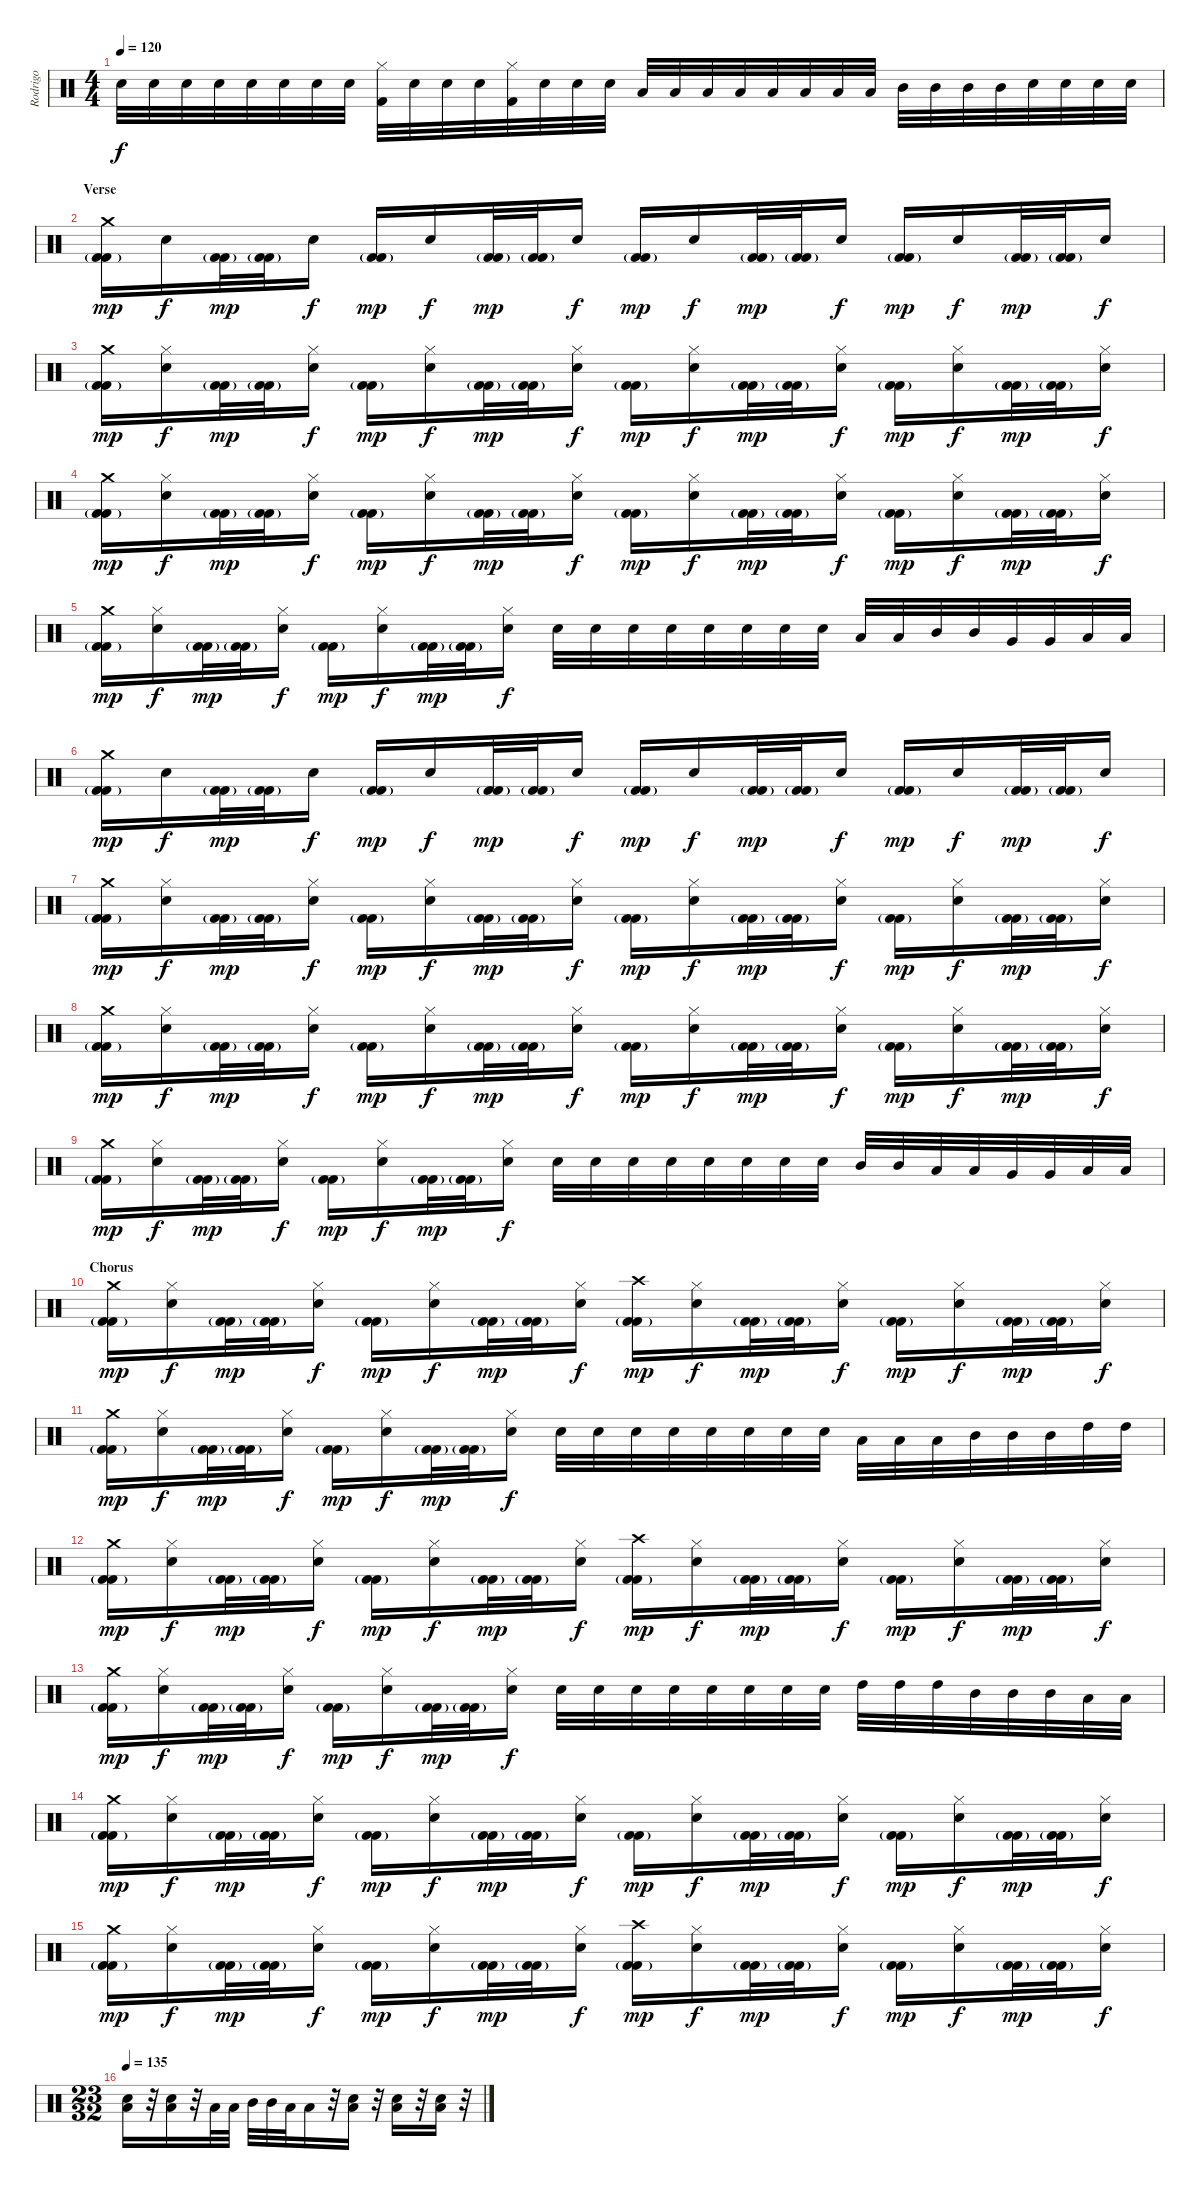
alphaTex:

\track ("Rodrigo" "Rodrigo") {instrument percussion}
\staff {score}
\articulation defaults
\ts (4 4)
\tempo 120
\clef neutral
\ks c "Snare (hit) 2".32{dy f} "Snare (hit) 2".32 "Snare (hit) 2".32 "Snare (hit) 2".32 "Snare (hit) 2".32 "Snare (hit) 2".32 "Snare (hit) 2".32 "Snare (hit) 2".32
("Kick (hit) 2" "Hi-Hat (closed)").32 "Snare (hit) 2".32 "Snare (hit) 2".32 "Snare (hit) 2".32 ("Kick (hit) 2" "Hi-Hat (closed)").32 "Snare (hit) 2".32 "Snare (hit) 2".32 "Snare (hit) 2".32 "Low Floor Tom (hit)".32 "Low Floor Tom (hit)".32 "Low Floor Tom (hit)".32 "Low Floor Tom (hit)".32 "Low Tom (hit)".32 "Low Tom (hit)".32 "Low Tom (hit)".32 "Low Tom (hit)".32 "Mid Tom (hit)".32 "Mid Tom (hit)".32 "Mid Tom (hit)".32 "Mid Tom (hit)".32 "Snare (hit) 2".32 "Snare (hit) 2".32 "Snare (hit) 2".32 "Snare (hit) 2".32 |
\section ("" "Verse")
("Crash medium (hit)" "Kick (hit) 2"{g} "Kick (hit) 2").16{dy mp} "Snare (hit) 2".16{dy f} ("Kick (hit) 2"{g} "Kick (hit) 2").32{dy mp} ("Kick (hit) 2"{g} "Kick (hit) 2").32 "Snare (hit) 2".16{dy f} ("Kick (hit) 2"{g} "Kick (hit) 2").16{dy mp} "Snare (hit) 2".16{dy f} ("Kick (hit) 2"{g} "Kick (hit) 2").32{dy mp} ("Kick (hit) 2"{g} "Kick (hit) 2").32 "Snare (hit) 2".16{dy f} ("Kick (hit) 2"{g} "Kick (hit) 2").16{dy mp} "Snare (hit) 2".16{dy f} ("Kick (hit) 2"{g} "Kick (hit) 2").32{dy mp} ("Kick (hit) 2"{g} "Kick (hit) 2").32 "Snare (hit) 2".16{dy f} ("Kick (hit) 2"{g} "Kick (hit) 2").16{dy mp} "Snare (hit) 2".16{dy f} ("Kick (hit) 2"{g} "Kick (hit) 2").32{dy mp} ("Kick (hit) 2"{g} "Kick (hit) 2").32 "Snare (hit) 2".16{dy f} |
("Crash medium (hit)" "Kick (hit) 2"{g} "Kick (hit) 2").16{dy mp} ("Hi-Hat (closed)" "Snare (hit) 2").16{dy f} ("Kick (hit) 2"{g} "Kick (hit) 2").32{dy mp} ("Kick (hit) 2"{g} "Kick (hit) 2").32 ("Hi-Hat (closed)" "Snare (hit) 2").16{dy f} ("Kick (hit) 2"{g} "Kick (hit) 2").16{dy mp} ("Hi-Hat (closed)" "Snare (hit) 2").16{dy f} ("Kick (hit) 2"{g} "Kick (hit) 2").32{dy mp} ("Kick (hit) 2"{g} "Kick (hit) 2").32 ("Hi-Hat (closed)" "Snare (hit) 2").16{dy f} ("Kick (hit) 2"{g} "Kick (hit) 2").16{dy mp} ("Hi-Hat (closed)" "Snare (hit) 2").16{dy f} ("Kick (hit) 2"{g} "Kick (hit) 2").32{dy mp} ("Kick (hit) 2"{g} "Kick (hit) 2").32 ("Hi-Hat (closed)" "Snare (hit) 2").16{dy f} ("Kick (hit) 2"{g} "Kick (hit) 2").16{dy mp} ("Hi-Hat (closed)" "Snare (hit) 2").16{dy f} ("Kick (hit) 2"{g} "Kick (hit) 2").32{dy mp} ("Kick (hit) 2"{g} "Kick (hit) 2").32 ("Hi-Hat (closed)" "Snare (hit) 2").16{dy f} |
("Crash medium (hit)" "Kick (hit) 2"{g} "Kick (hit) 2").16{dy mp} ("Hi-Hat (closed)" "Snare (hit) 2").16{dy f} ("Kick (hit) 2"{g} "Kick (hit) 2").32{dy mp} ("Kick (hit) 2"{g} "Kick (hit) 2").32 ("Hi-Hat (closed)" "Snare (hit) 2").16{dy f} ("Kick (hit) 2"{g} "Kick (hit) 2").16{dy mp} ("Hi-Hat (closed)" "Snare (hit) 2").16{dy f} ("Kick (hit) 2"{g} "Kick (hit) 2").32{dy mp} ("Kick (hit) 2"{g} "Kick (hit) 2").32 ("Hi-Hat (closed)" "Snare (hit) 2").16{dy f} ("Kick (hit) 2"{g} "Kick (hit) 2").16{dy mp} ("Hi-Hat (closed)" "Snare (hit) 2").16{dy f} ("Kick (hit) 2"{g} "Kick (hit) 2").32{dy mp} ("Kick (hit) 2"{g} "Kick (hit) 2").32 ("Hi-Hat (closed)" "Snare (hit) 2").16{dy f} ("Kick (hit) 2"{g} "Kick (hit) 2").16{dy mp} ("Hi-Hat (closed)" "Snare (hit) 2").16{dy f} ("Kick (hit) 2"{g} "Kick (hit) 2").32{dy mp} ("Kick (hit) 2"{g} "Kick (hit) 2").32 ("Hi-Hat (closed)" "Snare (hit) 2").16{dy f} |
("Crash medium (hit)" "Kick (hit) 2"{g} "Kick (hit) 2").16{dy mp} ("Hi-Hat (closed)" "Snare (hit) 2").16{dy f} ("Kick (hit) 2"{g} "Kick (hit) 2").32{dy mp} ("Kick (hit) 2"{g} "Kick (hit) 2").32 ("Hi-Hat (closed)" "Snare (hit) 2").16{dy f} ("Kick (hit) 2"{g} "Kick (hit) 2").16{dy mp} ("Hi-Hat (closed)" "Snare (hit) 2").16{dy f} ("Kick (hit) 2"{g} "Kick (hit) 2").32{dy mp} ("Kick (hit) 2"{g} "Kick (hit) 2").32 ("Hi-Hat (closed)" "Snare (hit) 2").16{dy f} "Snare (hit) 2".32 "Snare (hit) 2".32 "Snare (hit) 2".32 "Snare (hit) 2".32 "Snare (hit) 2".32 "Snare (hit) 2".32 "Snare (hit) 2".32 "Snare (hit) 2".32 "Low Tom (hit)".32 "Low Tom (hit)".32 "Mid Tom (hit)".32 "Mid Tom (hit)".32 "Very Low Tom (hit)".32 "Very Low Tom (hit)".32 "Low Floor Tom (hit)".32 "Low Floor Tom (hit)".32 |
("Crash medium (hit)" "Kick (hit) 2"{g} "Kick (hit) 2").16{dy mp} "Snare (hit) 2".16{dy f} ("Kick (hit) 2"{g} "Kick (hit) 2").32{dy mp} ("Kick (hit) 2"{g} "Kick (hit) 2").32 "Snare (hit) 2".16{dy f} ("Kick (hit) 2"{g} "Kick (hit) 2").16{dy mp} "Snare (hit) 2".16{dy f} ("Kick (hit) 2"{g} "Kick (hit) 2").32{dy mp} ("Kick (hit) 2"{g} "Kick (hit) 2").32 "Snare (hit) 2".16{dy f} ("Kick (hit) 2"{g} "Kick (hit) 2").16{dy mp} "Snare (hit) 2".16{dy f} ("Kick (hit) 2"{g} "Kick (hit) 2").32{dy mp} ("Kick (hit) 2"{g} "Kick (hit) 2").32 "Snare (hit) 2".16{dy f} ("Kick (hit) 2"{g} "Kick (hit) 2").16{dy mp} "Snare (hit) 2".16{dy f} ("Kick (hit) 2"{g} "Kick (hit) 2").32{dy mp} ("Kick (hit) 2"{g} "Kick (hit) 2").32 "Snare (hit) 2".16{dy f} |
("Crash medium (hit)" "Kick (hit) 2"{g} "Kick (hit) 2").16{dy mp} ("Hi-Hat (closed)" "Snare (hit) 2").16{dy f} ("Kick (hit) 2"{g} "Kick (hit) 2").32{dy mp} ("Kick (hit) 2"{g} "Kick (hit) 2").32 ("Hi-Hat (closed)" "Snare (hit) 2").16{dy f} ("Kick (hit) 2"{g} "Kick (hit) 2").16{dy mp} ("Hi-Hat (closed)" "Snare (hit) 2").16{dy f} ("Kick (hit) 2"{g} "Kick (hit) 2").32{dy mp} ("Kick (hit) 2"{g} "Kick (hit) 2").32 ("Hi-Hat (closed)" "Snare (hit) 2").16{dy f} ("Kick (hit) 2"{g} "Kick (hit) 2").16{dy mp} ("Hi-Hat (closed)" "Snare (hit) 2").16{dy f} ("Kick (hit) 2"{g} "Kick (hit) 2").32{dy mp} ("Kick (hit) 2"{g} "Kick (hit) 2").32 ("Hi-Hat (closed)" "Snare (hit) 2").16{dy f} ("Kick (hit) 2"{g} "Kick (hit) 2").16{dy mp} ("Hi-Hat (closed)" "Snare (hit) 2").16{dy f} ("Kick (hit) 2"{g} "Kick (hit) 2").32{dy mp} ("Kick (hit) 2"{g} "Kick (hit) 2").32 ("Hi-Hat (closed)" "Snare (hit) 2").16{dy f} |
("Crash medium (hit)" "Kick (hit) 2"{g} "Kick (hit) 2").16{dy mp} ("Hi-Hat (closed)" "Snare (hit) 2").16{dy f} ("Kick (hit) 2"{g} "Kick (hit) 2").32{dy mp} ("Kick (hit) 2"{g} "Kick (hit) 2").32 ("Hi-Hat (closed)" "Snare (hit) 2").16{dy f} ("Kick (hit) 2"{g} "Kick (hit) 2").16{dy mp} ("Hi-Hat (closed)" "Snare (hit) 2").16{dy f} ("Kick (hit) 2"{g} "Kick (hit) 2").32{dy mp} ("Kick (hit) 2"{g} "Kick (hit) 2").32 ("Hi-Hat (closed)" "Snare (hit) 2").16{dy f} ("Kick (hit) 2"{g} "Kick (hit) 2").16{dy mp} ("Hi-Hat (closed)" "Snare (hit) 2").16{dy f} ("Kick (hit) 2"{g} "Kick (hit) 2").32{dy mp} ("Kick (hit) 2"{g} "Kick (hit) 2").32 ("Hi-Hat (closed)" "Snare (hit) 2").16{dy f} ("Kick (hit) 2"{g} "Kick (hit) 2").16{dy mp} ("Hi-Hat (closed)" "Snare (hit) 2").16{dy f} ("Kick (hit) 2"{g} "Kick (hit) 2").32{dy mp} ("Kick (hit) 2"{g} "Kick (hit) 2").32 ("Hi-Hat (closed)" "Snare (hit) 2").16{dy f} |
("Crash medium (hit)" "Kick (hit) 2"{g} "Kick (hit) 2").16{dy mp} ("Hi-Hat (closed)" "Snare (hit) 2").16{dy f} ("Kick (hit) 2"{g} "Kick (hit) 2").32{dy mp} ("Kick (hit) 2"{g} "Kick (hit) 2").32 ("Hi-Hat (closed)" "Snare (hit) 2").16{dy f} ("Kick (hit) 2"{g} "Kick (hit) 2").16{dy mp} ("Hi-Hat (closed)" "Snare (hit) 2").16{dy f} ("Kick (hit) 2"{g} "Kick (hit) 2").32{dy mp} ("Kick (hit) 2"{g} "Kick (hit) 2").32 ("Hi-Hat (closed)" "Snare (hit) 2").16{dy f} "Snare (hit) 2".32 "Snare (hit) 2".32 "Snare (hit) 2".32 "Snare (hit) 2".32 "Snare (hit) 2".32 "Snare (hit) 2".32 "Snare (hit) 2".32 "Snare (hit) 2".32 "Mid Tom (hit)".32 "Mid Tom (hit)".32 "Low Tom (hit)".32 "Low Tom (hit)".32 "Very Low Tom (hit)".32 "Very Low Tom (hit)".32 "Low Floor Tom (hit)".32 "Low Floor Tom (hit)".32 |
\section ("" "Chorus")
("Crash medium (hit)" "Kick (hit) 2"{g} "Kick (hit) 2").16{dy mp} ("Hi-Hat (closed)" "Snare (hit) 2").16{dy f} ("Kick (hit) 2"{g} "Kick (hit) 2").32{dy mp} ("Kick (hit) 2"{g} "Kick (hit) 2").32 ("Hi-Hat (closed)" "Snare (hit) 2").16{dy f} ("Kick (hit) 2"{g} "Kick (hit) 2").16{dy mp} ("Hi-Hat (closed)" "Snare (hit) 2").16{dy f} ("Kick (hit) 2"{g} "Kick (hit) 2").32{dy mp} ("Kick (hit) 2"{g} "Kick (hit) 2").32 ("Hi-Hat (closed)" "Snare (hit) 2").16{dy f} ("Crash high (hit)" "Kick (hit) 2"{g} "Kick (hit) 2").16{dy mp} ("Hi-Hat (closed)" "Snare (hit) 2").16{dy f} ("Kick (hit) 2"{g} "Kick (hit) 2").32{dy mp} ("Kick (hit) 2"{g} "Kick (hit) 2").32 ("Hi-Hat (closed)" "Snare (hit) 2").16{dy f} ("Kick (hit) 2"{g} "Kick (hit) 2").16{dy mp} ("Hi-Hat (closed)" "Snare (hit) 2").16{dy f} ("Kick (hit) 2"{g} "Kick (hit) 2").32{dy mp} ("Kick (hit) 2"{g} "Kick (hit) 2").32 ("Hi-Hat (closed)" "Snare (hit) 2").16{dy f} |
("Crash medium (hit)" "Kick (hit) 2"{g} "Kick (hit) 2").16{dy mp} ("Hi-Hat (closed)" "Snare (hit) 2").16{dy f} ("Kick (hit) 2"{g} "Kick (hit) 2").32{dy mp} ("Kick (hit) 2"{g} "Kick (hit) 2").32 ("Hi-Hat (closed)" "Snare (hit) 2").16{dy f} ("Kick (hit) 2"{g} "Kick (hit) 2").16{dy mp} ("Hi-Hat (closed)" "Snare (hit) 2").16{dy f} ("Kick (hit) 2"{g} "Kick (hit) 2").32{dy mp} ("Kick (hit) 2"{g} "Kick (hit) 2").32 ("Hi-Hat (closed)" "Snare (hit) 2").16{dy f} "Snare (hit) 2".32 "Snare (hit) 2".32 "Snare (hit) 2".32 "Snare (hit) 2".32 "Snare (hit) 2".32 "Snare (hit) 2".32 "Snare (hit) 2".32 "Snare (hit) 2".32 "Low Tom (hit)".32 "Low Tom (hit)".32 "Low Tom (hit)".32 "Mid Tom (hit)".32 "Mid Tom (hit)".32 "Mid Tom (hit)".32 "High Tom (hit)".32 "High Tom (hit)".32 |
("Crash medium (hit)" "Kick (hit) 2"{g} "Kick (hit) 2").16{dy mp} ("Hi-Hat (closed)" "Snare (hit) 2").16{dy f} ("Kick (hit) 2"{g} "Kick (hit) 2").32{dy mp} ("Kick (hit) 2"{g} "Kick (hit) 2").32 ("Hi-Hat (closed)" "Snare (hit) 2").16{dy f} ("Kick (hit) 2"{g} "Kick (hit) 2").16{dy mp} ("Hi-Hat (closed)" "Snare (hit) 2").16{dy f} ("Kick (hit) 2"{g} "Kick (hit) 2").32{dy mp} ("Kick (hit) 2"{g} "Kick (hit) 2").32 ("Hi-Hat (closed)" "Snare (hit) 2").16{dy f} ("Crash high (hit)" "Kick (hit) 2"{g} "Kick (hit) 2").16{dy mp} ("Hi-Hat (closed)" "Snare (hit) 2").16{dy f} ("Kick (hit) 2"{g} "Kick (hit) 2").32{dy mp} ("Kick (hit) 2"{g} "Kick (hit) 2").32 ("Hi-Hat (closed)" "Snare (hit) 2").16{dy f} ("Kick (hit) 2"{g} "Kick (hit) 2").16{dy mp} ("Hi-Hat (closed)" "Snare (hit) 2").16{dy f} ("Kick (hit) 2"{g} "Kick (hit) 2").32{dy mp} ("Kick (hit) 2"{g} "Kick (hit) 2").32 ("Hi-Hat (closed)" "Snare (hit) 2").16{dy f} |
("Crash medium (hit)" "Kick (hit) 2"{g} "Kick (hit) 2").16{dy mp} ("Hi-Hat (closed)" "Snare (hit) 2").16{dy f} ("Kick (hit) 2"{g} "Kick (hit) 2").32{dy mp} ("Kick (hit) 2"{g} "Kick (hit) 2").32 ("Hi-Hat (closed)" "Snare (hit) 2").16{dy f} ("Kick (hit) 2"{g} "Kick (hit) 2").16{dy mp} ("Hi-Hat (closed)" "Snare (hit) 2").16{dy f} ("Kick (hit) 2"{g} "Kick (hit) 2").32{dy mp} ("Kick (hit) 2"{g} "Kick (hit) 2").32 ("Hi-Hat (closed)" "Snare (hit) 2").16{dy f} "Snare (hit) 2".32 "Snare (hit) 2".32 "Snare (hit) 2".32 "Snare (hit) 2".32 "Snare (hit) 2".32 "Snare (hit) 2".32 "Snare (hit) 2".32 "Snare (hit) 2".32 "High Tom (hit)".32 "High Tom (hit)".32 "High Tom (hit)".32 "Mid Tom (hit)".32 "Mid Tom (hit)".32 "Mid Tom (hit)".32 "Low Tom (hit)".32 "Low Tom (hit)".32 |
("Crash medium (hit)" "Kick (hit) 2"{g} "Kick (hit) 2").16{dy mp} ("Hi-Hat (closed)" "Snare (hit) 2").16{dy f} ("Kick (hit) 2"{g} "Kick (hit) 2").32{dy mp} ("Kick (hit) 2"{g} "Kick (hit) 2").32 ("Hi-Hat (closed)" "Snare (hit) 2").16{dy f} ("Kick (hit) 2"{g} "Kick (hit) 2").16{dy mp} ("Hi-Hat (closed)" "Snare (hit) 2").16{dy f} ("Kick (hit) 2"{g} "Kick (hit) 2").32{dy mp} ("Kick (hit) 2"{g} "Kick (hit) 2").32 ("Hi-Hat (closed)" "Snare (hit) 2").16{dy f} ("Kick (hit) 2"{g} "Kick (hit) 2").16{dy mp} ("Hi-Hat (closed)" "Snare (hit) 2").16{dy f} ("Kick (hit) 2"{g} "Kick (hit) 2").32{dy mp} ("Kick (hit) 2"{g} "Kick (hit) 2").32 ("Hi-Hat (closed)" "Snare (hit) 2").16{dy f} ("Kick (hit) 2"{g} "Kick (hit) 2").16{dy mp} ("Hi-Hat (closed)" "Snare (hit) 2").16{dy f} ("Kick (hit) 2"{g} "Kick (hit) 2").32{dy mp} ("Kick (hit) 2"{g} "Kick (hit) 2").32 ("Hi-Hat (closed)" "Snare (hit) 2").16{dy f} |
("Crash medium (hit)" "Kick (hit) 2"{g} "Kick (hit) 2").16{dy mp} ("Hi-Hat (closed)" "Snare (hit) 2").16{dy f} ("Kick (hit) 2"{g} "Kick (hit) 2").32{dy mp} ("Kick (hit) 2"{g} "Kick (hit) 2").32 ("Hi-Hat (closed)" "Snare (hit) 2").16{dy f} ("Kick (hit) 2"{g} "Kick (hit) 2").16{dy mp} ("Hi-Hat (closed)" "Snare (hit) 2").16{dy f} ("Kick (hit) 2"{g} "Kick (hit) 2").32{dy mp} ("Kick (hit) 2"{g} "Kick (hit) 2").32 ("Hi-Hat (closed)" "Snare (hit) 2").16{dy f} ("Crash high (hit)" "Kick (hit) 2"{g} "Kick (hit) 2").16{dy mp} ("Hi-Hat (closed)" "Snare (hit) 2").16{dy f} ("Kick (hit) 2"{g} "Kick (hit) 2").32{dy mp} ("Kick (hit) 2"{g} "Kick (hit) 2").32 ("Hi-Hat (closed)" "Snare (hit) 2").16{dy f} ("Kick (hit) 2"{g} "Kick (hit) 2").16{dy mp} ("Hi-Hat (closed)" "Snare (hit) 2").16{dy f} ("Kick (hit) 2"{g} "Kick (hit) 2").32{dy mp} ("Kick (hit) 2"{g} "Kick (hit) 2").32 ("Hi-Hat (closed)" "Snare (hit) 2").16{dy f} |
\ts (23 32)
\tempo 135
("Low Floor Tom (hit)" "Snare (hit) 2").16 r.32 ("Low Floor Tom (hit)" "Snare (hit) 2").16 r.32 "Low Tom (hit)".32 "Low Tom (hit)".32 "Mid Tom (hit)".32 "Mid Tom (hit)".32 "Low Tom (hit)".32 "Low Tom (hit)".16 r.32 ("Low Floor Tom (hit)" "Snare (hit) 2").16 r.32 ("Low Floor Tom (hit)" "Snare (hit) 2").16 r.32 ("Low Floor Tom (hit)" "Snare (hit) 2").16 r.32
